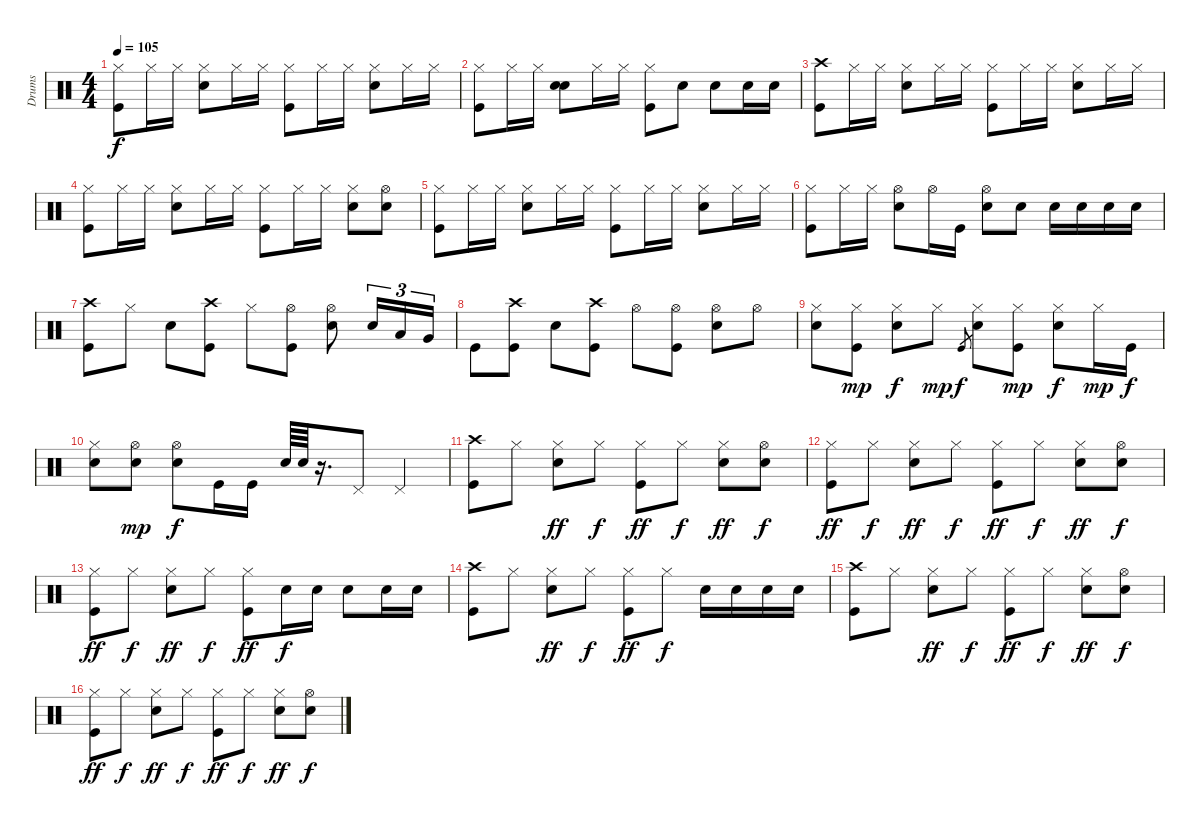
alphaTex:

\track ("Drums" "Drums") {instrument percussion}
\staff {score}
\articulation defaults
\ts (4 4)
\tempo 105
\clef neutral
\ks c
("Hi-Hat (closed)" "Kick (hit)").8{dy f} "Hi-Hat (closed)".16 "Hi-Hat (closed)".16 ("Hi-Hat (closed)" "Snare (hit) 2").8 "Hi-Hat (closed)".16 "Hi-Hat (closed)".16 ("Hi-Hat (closed)" "Kick (hit)").8 "Hi-Hat (closed)".16 "Hi-Hat (closed)".16 ("Hi-Hat (closed)" "Snare (hit) 2").8 "Hi-Hat (closed)".16 "Hi-Hat (closed)".16 |
("Hi-Hat (closed)" "Kick (hit)").8 "Hi-Hat (closed)".16 "Hi-Hat (closed)".16 ("Snare (hit)" "Snare (hit) 2").8 "Hi-Hat (closed)".16 "Hi-Hat (closed)".16 ("Hi-Hat (closed)" "Kick (hit)").8 "Snare (hit) 2".8 "Snare (hit) 2".8 "Snare (hit) 2".16 "Snare (hit) 2".16 |
("Crash high (hit)" "Kick (hit)").8 "Hi-Hat (closed)".16 "Hi-Hat (closed)".16 ("Hi-Hat (closed)" "Snare (hit) 2").8 "Hi-Hat (closed)".16 "Hi-Hat (closed)".16 ("Hi-Hat (closed)" "Kick (hit)").8 "Hi-Hat (closed)".16 "Hi-Hat (closed)".16 ("Hi-Hat (closed)" "Snare (hit) 2").8 "Hi-Hat (closed)".16 "Hi-Hat (closed)".16 |
("Hi-Hat (closed)" "Kick (hit)").8 "Hi-Hat (closed)".16 "Hi-Hat (closed)".16 ("Hi-Hat (closed)" "Snare (hit) 2").8 "Hi-Hat (closed)".16 "Hi-Hat (closed)".16 ("Hi-Hat (closed)" "Kick (hit)").8 "Hi-Hat (closed)".16 "Hi-Hat (closed)".16 ("Hi-Hat (closed)" "Snare (hit) 2").8 ("Hi-Hat (open)" "Snare (hit) 2").8 |
("Hi-Hat (closed)" "Kick (hit)").8 "Hi-Hat (closed)".16 "Hi-Hat (closed)".16 ("Hi-Hat (closed)" "Snare (hit) 2").8 "Hi-Hat (closed)".16 "Hi-Hat (closed)".16 ("Hi-Hat (closed)" "Kick (hit)").8 "Hi-Hat (closed)".16 "Hi-Hat (closed)".16 ("Hi-Hat (closed)" "Snare (hit) 2").8 "Hi-Hat (closed)".16 "Hi-Hat (closed)".16 |
("Hi-Hat (closed)" "Kick (hit)").8 "Hi-Hat (closed)".16 "Hi-Hat (closed)".16 ("Hi-Hat (open)" "Snare (hit) 2").8 "Hi-Hat (open)".16 "Kick (hit)".16 ("Hi-Hat (open)" "Snare (hit) 2").8 "Snare (hit) 2".8 "Snare (hit) 2".16 "Snare (hit) 2".16 "Snare (hit) 2".16 "Snare (hit) 2".16 |
("Kick (hit)" "Crash high (hit)").8 "Hi-Hat (closed)".8 "Snare (hit) 2".8 ("Kick (hit)" "Crash high (hit)").8 "Hi-Hat (closed)".8 ("Hi-Hat (open)" "Kick (hit)").8 ("Hi-Hat (open)" "Snare (hit) 2").8 "Snare (hit) 2".16{tu (3 2)} "Low Tom (hit)".16{tu (3 2)} "Very Low Tom (hit)".16{tu (3 2)} |
"Kick (hit)".8 ("Crash high (hit)" "Kick (hit)").8 "Snare (hit) 2".8 ("Crash high (hit)" "Kick (hit)").8 "Hi-Hat (open)".8 ("Hi-Hat (open)" "Kick (hit)").8 ("Hi-Hat (open)" "Snare (hit) 2").8 "Hi-Hat (open)".8 |
("Hi-Hat (closed)" "Snare (hit) 2").8 ("Hi-Hat (closed)" "Kick (hit)").8{dy mp} ("Hi-Hat (closed)" "Snare (hit) 2").8{dy f} "Hi-Hat (closed)".8{dy mp} "Kick (hit)".8{gr dy f} ("Hi-Hat (closed)" "Snare (hit) 2").8 ("Hi-Hat (closed)" "Kick (hit)").8{dy mp} ("Hi-Hat (closed)" "Snare (hit) 2").8{dy f} "Hi-Hat (closed)".16{dy mp} "Kick (hit)".16{dy f} |
("Hi-Hat (closed)" "Snare (hit) 2").8 ("Hi-Hat (open)" "Snare (hit) 2").8{dy mp} ("Hi-Hat (open)" "Snare (hit) 2").8{dy f} "Kick (hit)".16 "Kick (hit)".16 "Snare (hit) 2".64 "Snare (hit) 2".64 r.16{d} "Pedal Hi-Hat (hit)".8 "Pedal Hi-Hat (hit)".4 |
("Crash high (hit)" "Kick (hit)").8 "Hi-Hat (closed)".8 ("Hi-Hat (closed)" "Snare (hit) 2").8{dy ff} "Hi-Hat (closed)".8{dy f} ("Hi-Hat (closed)" "Kick (hit)").8{dy ff} "Hi-Hat (closed)".8{dy f} ("Hi-Hat (closed)" "Snare (hit) 2").8{dy ff} ("Hi-Hat (open)" "Snare (hit) 2").8{dy f} |
("Hi-Hat (closed)" "Kick (hit)").8{dy ff} "Hi-Hat (closed)".8{dy f} ("Hi-Hat (closed)" "Snare (hit) 2").8{dy ff} "Hi-Hat (closed)".8{dy f} ("Hi-Hat (closed)" "Kick (hit)").8{dy ff} "Hi-Hat (closed)".8{dy f} ("Hi-Hat (closed)" "Snare (hit) 2").8{dy ff} ("Hi-Hat (open)" "Snare (hit) 2").8{dy f} |
("Hi-Hat (closed)" "Kick (hit)").8{dy ff} "Hi-Hat (closed)".8{dy f} ("Hi-Hat (closed)" "Snare (hit) 2").8{dy ff} "Hi-Hat (closed)".8{dy f} ("Hi-Hat (closed)" "Kick (hit)").8{dy ff} "Snare (hit) 2".16{dy f} "Snare (hit) 2".16 "Snare (hit) 2".8 "Snare (hit) 2".16 "Snare (hit) 2".16 |
("Crash high (hit)" "Kick (hit)").8 "Hi-Hat (closed)".8 ("Hi-Hat (closed)" "Snare (hit) 2").8{dy ff} "Hi-Hat (closed)".8{dy f} ("Hi-Hat (closed)" "Kick (hit)").8{dy ff} "Hi-Hat (closed)".8{dy f} "Snare (hit) 2".16 "Snare (hit) 2".16 "Snare (hit) 2".16 "Snare (hit) 2".16 |
("Crash high (hit)" "Kick (hit)").8 "Hi-Hat (closed)".8 ("Hi-Hat (closed)" "Snare (hit) 2").8{dy ff} "Hi-Hat (closed)".8{dy f} ("Hi-Hat (closed)" "Kick (hit)").8{dy ff} "Hi-Hat (closed)".8{dy f} ("Hi-Hat (closed)" "Snare (hit) 2").8{dy ff} ("Hi-Hat (open)" "Snare (hit) 2").8{dy f} |
("Hi-Hat (closed)" "Kick (hit)").8{dy ff} "Hi-Hat (closed)".8{dy f} ("Hi-Hat (closed)" "Snare (hit) 2").8{dy ff} "Hi-Hat (closed)".8{dy f} ("Hi-Hat (closed)" "Kick (hit)").8{dy ff} "Hi-Hat (closed)".8{dy f} ("Hi-Hat (closed)" "Snare (hit) 2").8{dy ff} ("Hi-Hat (open)" "Snare (hit) 2").8{dy f}
